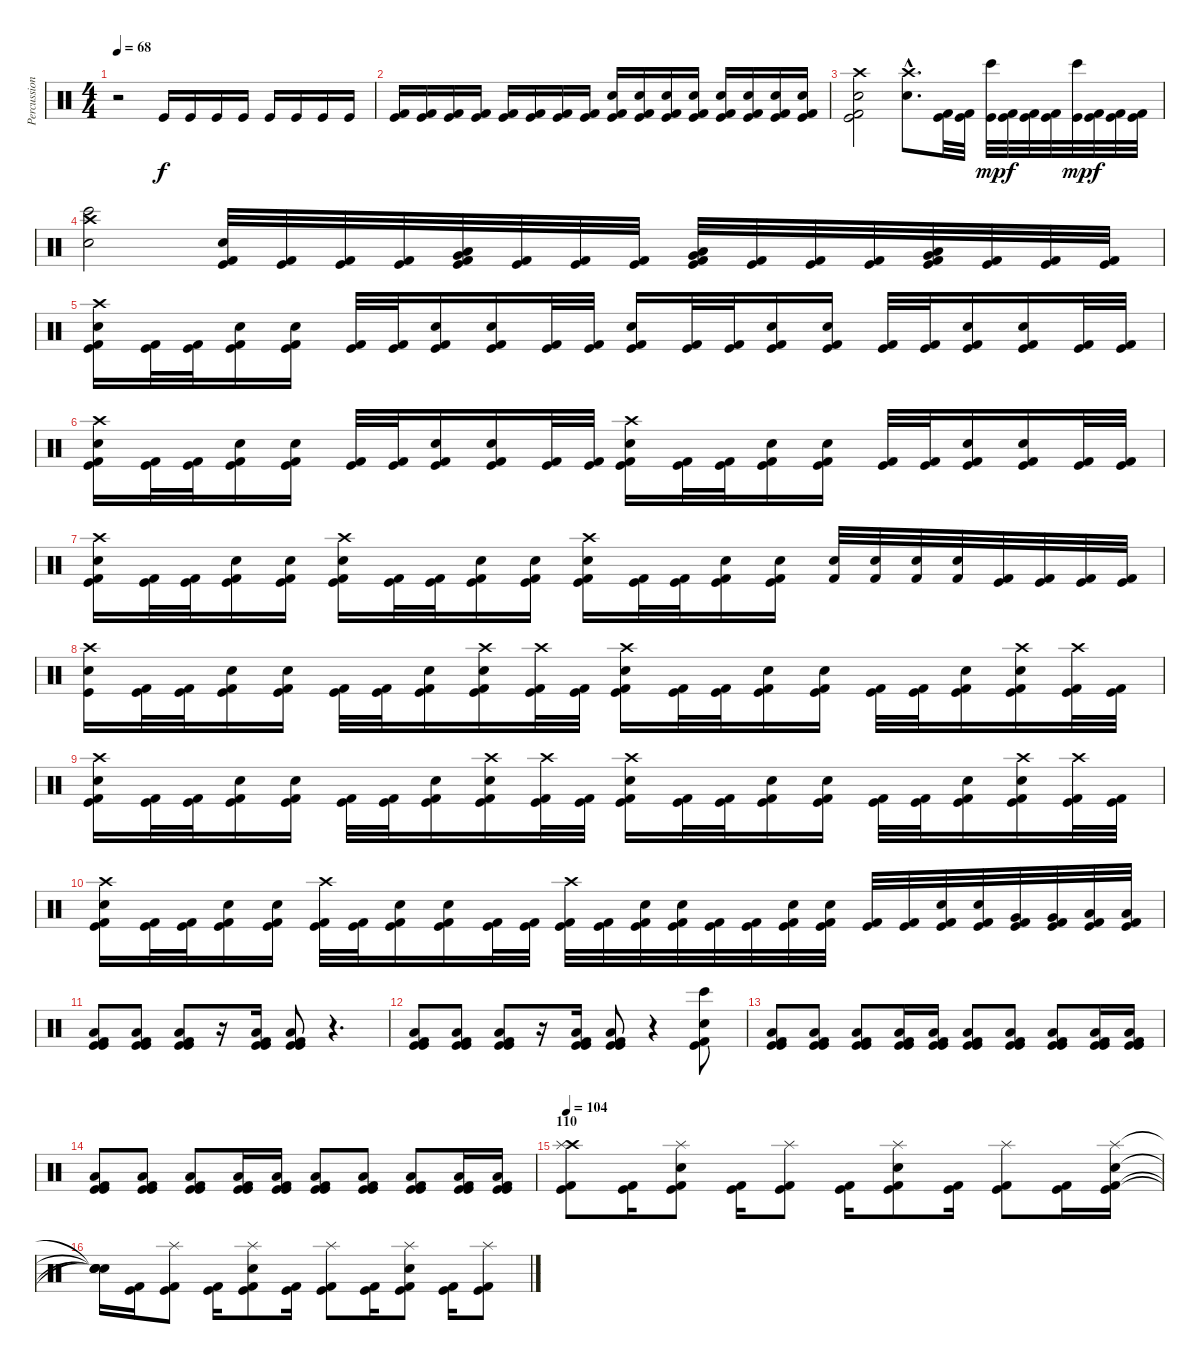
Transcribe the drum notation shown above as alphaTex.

\track ("Percussion" "Percussion") {instrument percussion}
\staff {score}
\articulation defaults
\ts (4 4)
\tempo 68
\clef neutral
\ks c
r.2{dy f} "Kick (hit)".16 "Kick (hit)".16 "Kick (hit)".16 "Kick (hit)".16 "Kick (hit)".16 "Kick (hit)".16 "Kick (hit)".16 "Kick (hit)".16 |
("Kick (hit)" "Kick (hit) 2").16 ("Kick (hit)" "Kick (hit) 2").16 ("Kick (hit)" "Kick (hit) 2").16 ("Kick (hit)" "Kick (hit) 2").16 ("Kick (hit)" "Kick (hit) 2").16 ("Kick (hit)" "Kick (hit) 2").16 ("Kick (hit)" "Kick (hit) 2").16 ("Kick (hit)" "Kick (hit) 2").16 ("Kick (hit)" "Kick (hit) 2" "Snare (hit) 2").16 ("Kick (hit)" "Kick (hit) 2" "Snare (hit) 2").16 ("Kick (hit)" "Kick (hit) 2" "Snare (hit) 2").16 ("Kick (hit)" "Kick (hit) 2" "Snare (hit) 2").16 ("Kick (hit)" "Kick (hit) 2" "Snare (hit) 2").16 ("Kick (hit)" "Kick (hit) 2" "Snare (hit) 2").16 ("Kick (hit)" "Kick (hit) 2" "Snare (hit) 2").16 ("Kick (hit)" "Kick (hit) 2" "Snare (hit) 2").16 |
("Kick (hit)" "Kick (hit) 2" "Snare (hit) 2" "Crash high (hit)").2 ("Snare (hit) 2"{hac} "Crash high (hit)"{hac}).8{d} ("Kick (hit)" "Kick (hit) 2").32 ("Kick (hit)" "Kick (hit) 2").32 ("Bongo High (hit)" "Kick (hit)").32{dy mp} ("Kick (hit)" "Kick (hit) 2").32{dy f} ("Kick (hit)" "Kick (hit) 2").32 ("Kick (hit)" "Kick (hit) 2").32 ("Bongo High (hit)" "Kick (hit)").32{dy mp} ("Kick (hit)" "Kick (hit) 2").32{dy f} ("Kick (hit)" "Kick (hit) 2").32 ("Kick (hit)" "Kick (hit) 2").32 |
("Bongo High (hit)" "Snare (hit) 2" "Crash high (hit)").2 ("Kick (hit)" "Kick (hit) 2" "Snare (hit) 2").32 ("Kick (hit)" "Kick (hit) 2").32 ("Kick (hit)" "Kick (hit) 2").32 ("Kick (hit)" "Kick (hit) 2").32 ("Kick (hit)" "Kick (hit) 2" "Very Low Tom (hit)" "Low Tom (hit)").32 ("Kick (hit)" "Kick (hit) 2").32 ("Kick (hit)" "Kick (hit) 2").32 ("Kick (hit)" "Kick (hit) 2").32 ("Kick (hit)" "Kick (hit) 2" "Very Low Tom (hit)" "Low Tom (hit)").32 ("Kick (hit)" "Kick (hit) 2").32 ("Kick (hit)" "Kick (hit) 2").32 ("Kick (hit)" "Kick (hit) 2").32 ("Kick (hit)" "Kick (hit) 2" "Very Low Tom (hit)" "Low Tom (hit)").32 ("Kick (hit)" "Kick (hit) 2").32 ("Kick (hit)" "Kick (hit) 2").32 ("Kick (hit)" "Kick (hit) 2").32 |
("Kick (hit)" "Kick (hit) 2" "Snare (hit) 2" "Crash high (hit)").16 ("Kick (hit)" "Kick (hit) 2").32 ("Kick (hit)" "Kick (hit) 2").32 ("Kick (hit)" "Kick (hit) 2" "Snare (hit) 2").16 ("Kick (hit)" "Kick (hit) 2" "Snare (hit) 2").16 ("Kick (hit)" "Kick (hit) 2").32 ("Kick (hit)" "Kick (hit) 2").32 ("Kick (hit)" "Kick (hit) 2" "Snare (hit) 2").16 ("Kick (hit)" "Kick (hit) 2" "Snare (hit) 2").16 ("Kick (hit)" "Kick (hit) 2").32 ("Kick (hit)" "Kick (hit) 2").32 ("Kick (hit)" "Kick (hit) 2" "Snare (hit) 2").16 ("Kick (hit)" "Kick (hit) 2").32 ("Kick (hit)" "Kick (hit) 2").32 ("Kick (hit)" "Kick (hit) 2" "Snare (hit) 2").16 ("Kick (hit)" "Kick (hit) 2" "Snare (hit) 2").16 ("Kick (hit)" "Kick (hit) 2").32 ("Kick (hit)" "Kick (hit) 2").32 ("Kick (hit)" "Kick (hit) 2" "Snare (hit) 2").16 ("Kick (hit)" "Kick (hit) 2" "Snare (hit) 2").16 ("Kick (hit)" "Kick (hit) 2").32 ("Kick (hit)" "Kick (hit) 2").32 |
("Kick (hit)" "Kick (hit) 2" "Snare (hit) 2" "Crash high (hit)").16 ("Kick (hit)" "Kick (hit) 2").32 ("Kick (hit)" "Kick (hit) 2").32 ("Kick (hit)" "Kick (hit) 2" "Snare (hit) 2").16 ("Kick (hit)" "Kick (hit) 2" "Snare (hit) 2").16 ("Kick (hit)" "Kick (hit) 2").32 ("Kick (hit)" "Kick (hit) 2").32 ("Kick (hit)" "Kick (hit) 2" "Snare (hit) 2").16 ("Kick (hit)" "Kick (hit) 2" "Snare (hit) 2").16 ("Kick (hit)" "Kick (hit) 2").32 ("Kick (hit)" "Kick (hit) 2").32 ("Kick (hit)" "Kick (hit) 2" "Snare (hit) 2" "Crash high (hit)").16 ("Kick (hit)" "Kick (hit) 2").32 ("Kick (hit)" "Kick (hit) 2").32 ("Kick (hit)" "Kick (hit) 2" "Snare (hit) 2").16 ("Kick (hit)" "Kick (hit) 2" "Snare (hit) 2").16 ("Kick (hit)" "Kick (hit) 2").32 ("Kick (hit)" "Kick (hit) 2").32 ("Kick (hit)" "Kick (hit) 2" "Snare (hit) 2").16 ("Kick (hit)" "Kick (hit) 2" "Snare (hit) 2").16 ("Kick (hit)" "Kick (hit) 2").32 ("Kick (hit)" "Kick (hit) 2").32 |
("Kick (hit)" "Kick (hit) 2" "Snare (hit) 2" "Crash high (hit)").16 ("Kick (hit)" "Kick (hit) 2").32 ("Kick (hit)" "Kick (hit) 2").32 ("Kick (hit)" "Kick (hit) 2" "Snare (hit) 2").16 ("Kick (hit)" "Kick (hit) 2" "Snare (hit) 2").16 ("Kick (hit)" "Kick (hit) 2" "Snare (hit) 2" "Crash high (hit)").16 ("Kick (hit)" "Kick (hit) 2").32 ("Kick (hit)" "Kick (hit) 2").32 ("Kick (hit)" "Kick (hit) 2" "Snare (hit) 2").16 ("Kick (hit)" "Kick (hit) 2" "Snare (hit) 2").16 ("Kick (hit)" "Kick (hit) 2" "Snare (hit) 2" "Crash high (hit)").16 ("Kick (hit)" "Kick (hit) 2").32 ("Kick (hit)" "Kick (hit) 2").32 ("Kick (hit)" "Kick (hit) 2" "Snare (hit) 2").16 ("Kick (hit)" "Kick (hit) 2" "Snare (hit) 2").16 ("Kick (hit) 2" "Snare (hit) 2").32 ("Kick (hit) 2" "Snare (hit) 2").32 ("Kick (hit) 2" "Snare (hit) 2").32 ("Kick (hit) 2" "Snare (hit) 2").32 ("Kick (hit)" "Kick (hit) 2").32 ("Kick (hit)" "Kick (hit) 2").32 ("Kick (hit)" "Kick (hit) 2").32 ("Kick (hit)" "Kick (hit) 2").32 |
("Kick (hit)" "Snare (hit) 2" "Crash high (hit)").16 ("Kick (hit)" "Kick (hit) 2").32 ("Kick (hit)" "Kick (hit) 2").32 ("Kick (hit)" "Kick (hit) 2" "Snare (hit) 2").16 ("Kick (hit)" "Kick (hit) 2" "Snare (hit) 2").16 ("Kick (hit)" "Kick (hit) 2").32 ("Kick (hit)" "Kick (hit) 2").32 ("Kick (hit)" "Kick (hit) 2" "Snare (hit) 2").16 ("Kick (hit)" "Kick (hit) 2" "Snare (hit) 2" "Crash high (hit)").16 ("Kick (hit)" "Kick (hit) 2" "Crash high (hit)").32 ("Kick (hit)" "Kick (hit) 2").32 ("Kick (hit)" "Kick (hit) 2" "Snare (hit) 2" "Crash high (hit)").16 ("Kick (hit)" "Kick (hit) 2").32 ("Kick (hit)" "Kick (hit) 2").32 ("Kick (hit)" "Kick (hit) 2" "Snare (hit) 2").16 ("Kick (hit)" "Kick (hit) 2" "Snare (hit) 2").16 ("Kick (hit)" "Kick (hit) 2").32 ("Kick (hit)" "Kick (hit) 2").32 ("Kick (hit)" "Kick (hit) 2" "Snare (hit) 2").16 ("Kick (hit)" "Kick (hit) 2" "Snare (hit) 2" "Crash high (hit)").16 ("Kick (hit)" "Kick (hit) 2" "Crash high (hit)").32 ("Kick (hit)" "Kick (hit) 2").32 |
("Kick (hit)" "Kick (hit) 2" "Snare (hit) 2" "Crash high (hit)").16 ("Kick (hit)" "Kick (hit) 2").32 ("Kick (hit)" "Kick (hit) 2").32 ("Kick (hit)" "Kick (hit) 2" "Snare (hit) 2").16 ("Kick (hit)" "Kick (hit) 2" "Snare (hit) 2").16 ("Kick (hit)" "Kick (hit) 2").32 ("Kick (hit)" "Kick (hit) 2").32 ("Kick (hit)" "Kick (hit) 2" "Snare (hit) 2").16 ("Kick (hit)" "Kick (hit) 2" "Snare (hit) 2" "Crash high (hit)").16 ("Kick (hit)" "Kick (hit) 2" "Crash high (hit)").32 ("Kick (hit)" "Kick (hit) 2").32 ("Kick (hit)" "Kick (hit) 2" "Snare (hit) 2" "Crash high (hit)").16 ("Kick (hit)" "Kick (hit) 2").32 ("Kick (hit)" "Kick (hit) 2").32 ("Kick (hit)" "Kick (hit) 2" "Snare (hit) 2").16 ("Kick (hit)" "Kick (hit) 2" "Snare (hit) 2").16 ("Kick (hit)" "Kick (hit) 2").32 ("Kick (hit)" "Kick (hit) 2").32 ("Kick (hit)" "Kick (hit) 2" "Snare (hit) 2").16 ("Kick (hit)" "Kick (hit) 2" "Snare (hit) 2" "Crash high (hit)").16 ("Kick (hit)" "Kick (hit) 2" "Crash high (hit)").32 ("Kick (hit)" "Kick (hit) 2").32 |
("Kick (hit)" "Kick (hit) 2" "Snare (hit) 2" "Crash high (hit)").16 ("Kick (hit)" "Kick (hit) 2").32 ("Kick (hit)" "Kick (hit) 2").32 ("Kick (hit)" "Kick (hit) 2" "Snare (hit) 2").16 ("Kick (hit)" "Kick (hit) 2" "Snare (hit) 2").16 ("Kick (hit)" "Kick (hit) 2" "Crash high (hit)").32 ("Kick (hit)" "Kick (hit) 2").32 ("Kick (hit)" "Kick (hit) 2" "Snare (hit) 2").16 ("Kick (hit)" "Kick (hit) 2" "Snare (hit) 2").16 ("Kick (hit)" "Kick (hit) 2").32 ("Kick (hit)" "Kick (hit) 2").32 ("Kick (hit)" "Kick (hit) 2" "Crash high (hit)").32 ("Kick (hit)" "Kick (hit) 2").32 ("Kick (hit)" "Kick (hit) 2" "Snare (hit) 2").32 ("Kick (hit)" "Kick (hit) 2" "Snare (hit) 2").32 ("Kick (hit)" "Kick (hit) 2").32 ("Kick (hit)" "Kick (hit) 2").32 ("Kick (hit)" "Kick (hit) 2" "Snare (hit) 2").32 ("Kick (hit)" "Kick (hit) 2" "Snare (hit) 2").32 ("Kick (hit)" "Kick (hit) 2").32 ("Kick (hit)" "Kick (hit) 2").32 ("Kick (hit)" "Kick (hit) 2" "Snare (hit) 2").32 ("Kick (hit)" "Kick (hit) 2" "Snare (hit) 2").32 ("Kick (hit)" "Kick (hit) 2" "Very Low Tom (hit)").32 ("Kick (hit)" "Kick (hit) 2" "Very Low Tom (hit)").32 ("Kick (hit)" "Kick (hit) 2" "Low Floor Tom (hit)").32 ("Kick (hit)" "Kick (hit) 2" "Low Floor Tom (hit)").32 |
("Kick (hit)" "Kick (hit)" "Kick (hit) 2" "Low Floor Tom (hit)").8 ("Kick (hit)" "Kick (hit)" "Kick (hit) 2" "Low Floor Tom (hit)").8 ("Kick (hit)" "Kick (hit)" "Kick (hit) 2" "Low Floor Tom (hit)").8 r.16 ("Kick (hit)" "Kick (hit)" "Kick (hit) 2" "Low Floor Tom (hit)").16 ("Kick (hit)" "Kick (hit)" "Kick (hit) 2" "Low Floor Tom (hit)").8 r.4{d} |
("Kick (hit)" "Kick (hit)" "Kick (hit) 2" "Low Floor Tom (hit)").8 ("Kick (hit)" "Kick (hit)" "Kick (hit) 2" "Low Floor Tom (hit)").8 ("Kick (hit)" "Kick (hit)" "Kick (hit) 2" "Low Floor Tom (hit)").8 r.16 ("Kick (hit)" "Kick (hit)" "Kick (hit) 2" "Low Floor Tom (hit)").16 ("Kick (hit)" "Kick (hit)" "Kick (hit) 2" "Low Floor Tom (hit)").8 r.4 ("Bongo High (hit)" "Kick (hit)" "Kick (hit) 2" "Snare (hit) 2").8 |
("Kick (hit)" "Kick (hit)" "Kick (hit) 2" "Low Floor Tom (hit)").8 ("Kick (hit)" "Kick (hit)" "Kick (hit) 2" "Low Floor Tom (hit)").8 ("Kick (hit)" "Kick (hit)" "Kick (hit) 2" "Low Floor Tom (hit)").8 ("Kick (hit)" "Kick (hit)" "Kick (hit) 2" "Low Floor Tom (hit)").16 ("Kick (hit)" "Kick (hit)" "Kick (hit) 2" "Low Floor Tom (hit)").16 ("Kick (hit)" "Kick (hit)" "Kick (hit) 2" "Low Floor Tom (hit)").8 ("Kick (hit)" "Kick (hit)" "Kick (hit) 2" "Low Floor Tom (hit)").8 ("Kick (hit)" "Kick (hit)" "Kick (hit) 2" "Low Floor Tom (hit)").8 ("Kick (hit)" "Kick (hit)" "Kick (hit) 2" "Low Floor Tom (hit)").16 ("Kick (hit)" "Kick (hit)" "Kick (hit) 2" "Low Floor Tom (hit)").16 |
("Kick (hit)" "Kick (hit)" "Kick (hit) 2" "Low Floor Tom (hit)").8 ("Kick (hit)" "Kick (hit)" "Kick (hit) 2" "Low Floor Tom (hit)").8 ("Kick (hit)" "Kick (hit)" "Kick (hit) 2" "Low Floor Tom (hit)").8 ("Kick (hit)" "Kick (hit)" "Kick (hit) 2" "Low Floor Tom (hit)").16 ("Kick (hit)" "Kick (hit)" "Kick (hit) 2" "Low Floor Tom (hit)").16 ("Kick (hit)" "Kick (hit)" "Kick (hit) 2" "Low Floor Tom (hit)").8 ("Kick (hit)" "Kick (hit)" "Kick (hit) 2" "Low Floor Tom (hit)").8 ("Kick (hit)" "Kick (hit)" "Kick (hit) 2" "Low Floor Tom (hit)").8 ("Kick (hit)" "Kick (hit)" "Kick (hit) 2" "Low Floor Tom (hit)").16 ("Kick (hit)" "Kick (hit)" "Kick (hit) 2" "Low Floor Tom (hit)").16 |
\section ("" "110")
\tempo 104
("Kick (hit)" "Kick (hit) 2" "Crash high (hit)" "Splash (hit)").8 ("Kick (hit)" "Kick (hit) 2").16 ("Kick (hit)" "Kick (hit) 2" "Snare (hit) 2" "Splash (hit)").8 ("Kick (hit)" "Kick (hit) 2").16 ("Kick (hit)" "Kick (hit) 2" "Splash (hit)").8 ("Kick (hit)" "Kick (hit) 2").16 ("Kick (hit)" "Kick (hit) 2" "Snare (hit) 2" "Splash (hit)").8 ("Kick (hit)" "Kick (hit) 2").16 ("Kick (hit)" "Kick (hit) 2" "Splash (hit)").8 ("Kick (hit)" "Kick (hit) 2").16 ("Kick (hit)" "Kick (hit) 2" "Snare (hit) 2" "Splash (hit)").16 |
("Snare (hit)"{t} "Snare (hit)"{t} "Snare (hit)"{t} "Snare (hit)"{t}).16 ("Kick (hit)" "Kick (hit) 2").16 ("Kick (hit)" "Kick (hit) 2" "Splash (hit)").8 ("Kick (hit)" "Kick (hit) 2").16 ("Kick (hit)" "Kick (hit) 2" "Snare (hit) 2" "Splash (hit)").8 ("Kick (hit)" "Kick (hit) 2").16 ("Kick (hit)" "Kick (hit) 2" "Splash (hit)").8 ("Kick (hit)" "Kick (hit) 2").16 ("Kick (hit)" "Kick (hit) 2" "Snare (hit) 2" "Splash (hit)").8 ("Kick (hit)" "Kick (hit) 2").16 ("Kick (hit)" "Kick (hit) 2" "Splash (hit)").8
